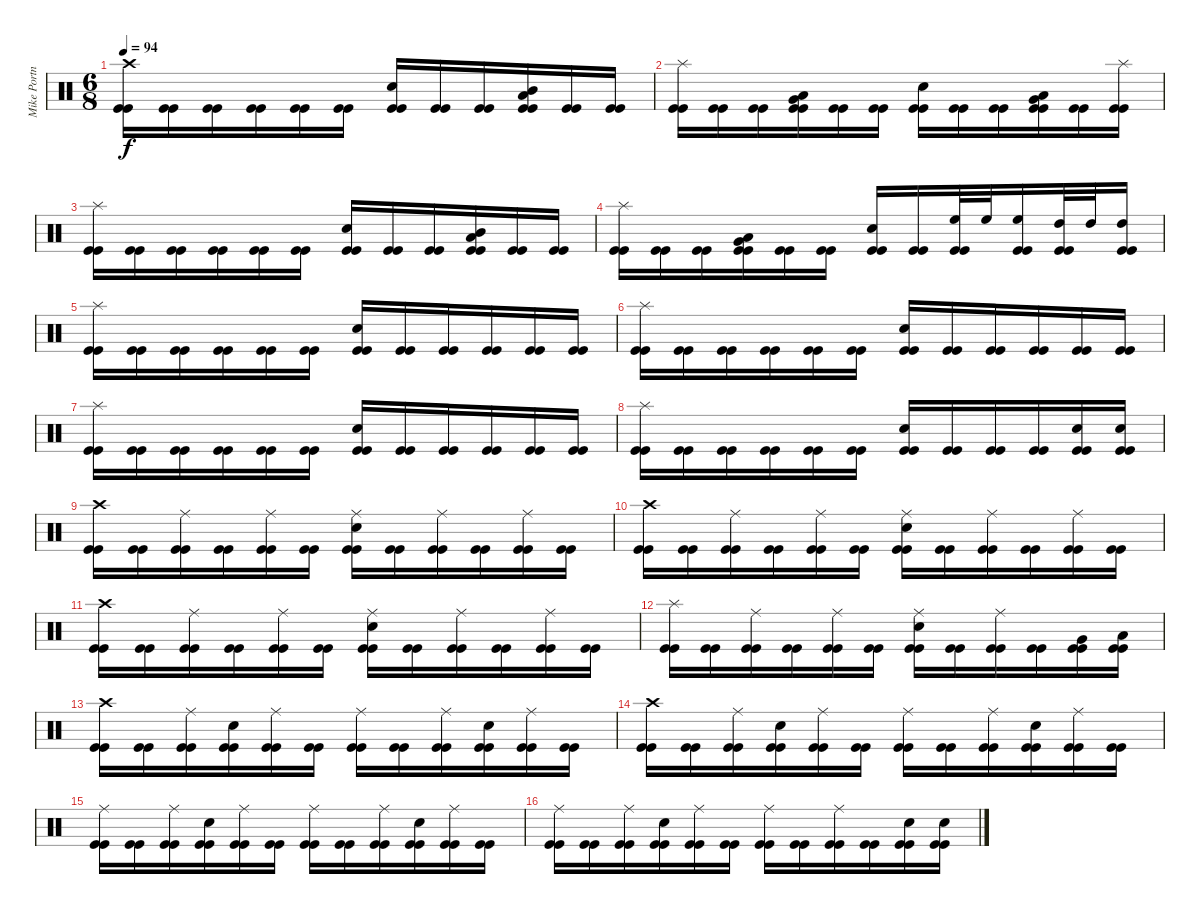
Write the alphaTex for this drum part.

\track ("Mike Portnoy - Drum" "Mike Portn") {instrument percussion}
\staff {score}
\articulation defaults
\ts (6 8)
\tempo 94
\clef neutral
\ks c
("Crash high (hit)" "Kick (hit)" "Kick (hit)").16{dy f} ("Kick (hit)" "Kick (hit)").16 ("Kick (hit)" "Kick (hit)").16 ("Kick (hit)" "Kick (hit)").16 ("Kick (hit)" "Kick (hit)").16 ("Kick (hit)" "Kick (hit)").16 ("Snare (hit) 2" "Kick (hit)" "Kick (hit)").16 ("Kick (hit)" "Kick (hit)").16 ("Kick (hit)" "Kick (hit)").16 ("Low Tom (hit)" "Mid Tom (hit)" "Kick (hit)" "Kick (hit)").16 ("Kick (hit)" "Kick (hit)").16 ("Kick (hit)" "Kick (hit)").16 |
("Splash (hit)" "Kick (hit)" "Kick (hit)").16 ("Kick (hit)" "Kick (hit)").16 ("Kick (hit)" "Kick (hit)").16 ("Low Tom (hit)" "Very Low Tom (hit)" "Kick (hit)" "Kick (hit)").16 ("Kick (hit)" "Kick (hit)").16 ("Kick (hit)" "Kick (hit)").16 ("Snare (hit) 2" "Kick (hit)" "Kick (hit)").16 ("Kick (hit)" "Kick (hit)").16 ("Kick (hit)" "Kick (hit)").16 ("Very Low Tom (hit)" "Low Floor Tom (hit)" "Kick (hit)" "Kick (hit)").16 ("Kick (hit)" "Kick (hit)").16 ("Splash (hit)" "Kick (hit)" "Kick (hit)").16 |
("Splash (hit)" "Kick (hit)" "Kick (hit)").16 ("Kick (hit)" "Kick (hit)").16 ("Kick (hit)" "Kick (hit)").16 ("Kick (hit)" "Kick (hit)").16 ("Kick (hit)" "Kick (hit)").16 ("Kick (hit)" "Kick (hit)").16 ("Snare (hit) 2" "Kick (hit)" "Kick (hit)").16 ("Kick (hit)" "Kick (hit)").16 ("Kick (hit)" "Kick (hit)").16 ("Low Tom (hit)" "Mid Tom (hit)" "Kick (hit)" "Kick (hit)").16 ("Kick (hit)" "Kick (hit)").16 ("Kick (hit)" "Kick (hit)").16 |
("Splash (hit)" "Kick (hit)" "Kick (hit)").16 ("Kick (hit)" "Kick (hit)").16 ("Kick (hit)" "Kick (hit)").16 ("Low Tom (hit)" "Very Low Tom (hit)" "Kick (hit)" "Kick (hit)").16 ("Kick (hit)" "Kick (hit)").16 ("Kick (hit)" "Kick (hit)").16 ("Snare (hit) 2" "Kick (hit)" "Kick (hit)").16 ("Kick (hit)" "Kick (hit)").16 ("High Floor Tom (hit)" "Kick (hit)" "Kick (hit)").32 "High Floor Tom (hit)".32 ("High Floor Tom (hit)" "Kick (hit)" "Kick (hit)").16 ("High Tom (hit)" "Kick (hit)" "Kick (hit)").32 "High Tom (hit)".32 ("High Tom (hit)" "Kick (hit)" "Kick (hit)").16 |
("Splash (hit)" "Kick (hit)" "Kick (hit)").16 ("Kick (hit)" "Kick (hit)").16 ("Kick (hit)" "Kick (hit)").16 ("Kick (hit)" "Kick (hit)").16 ("Kick (hit)" "Kick (hit)").16 ("Kick (hit)" "Kick (hit)").16 ("Snare (hit) 2" "Kick (hit)" "Kick (hit)").16 ("Kick (hit)" "Kick (hit)").16 ("Kick (hit)" "Kick (hit)").16 ("Kick (hit)" "Kick (hit)").16 ("Kick (hit)" "Kick (hit)").16 ("Kick (hit)" "Kick (hit)").16 |
("Splash (hit)" "Kick (hit)" "Kick (hit)").16 ("Kick (hit)" "Kick (hit)").16 ("Kick (hit)" "Kick (hit)").16 ("Kick (hit)" "Kick (hit)").16 ("Kick (hit)" "Kick (hit)").16 ("Kick (hit)" "Kick (hit)").16 ("Snare (hit) 2" "Kick (hit)" "Kick (hit)").16 ("Kick (hit)" "Kick (hit)").16 ("Kick (hit)" "Kick (hit)").16 ("Kick (hit)" "Kick (hit)").16 ("Kick (hit)" "Kick (hit)").16 ("Kick (hit)" "Kick (hit)").16 |
("Splash (hit)" "Kick (hit)" "Kick (hit)").16 ("Kick (hit)" "Kick (hit)").16 ("Kick (hit)" "Kick (hit)").16 ("Kick (hit)" "Kick (hit)").16 ("Kick (hit)" "Kick (hit)").16 ("Kick (hit)" "Kick (hit)").16 ("Snare (hit) 2" "Kick (hit)" "Kick (hit)").16 ("Kick (hit)" "Kick (hit)").16 ("Kick (hit)" "Kick (hit)").16 ("Kick (hit)" "Kick (hit)").16 ("Kick (hit)" "Kick (hit)").16 ("Kick (hit)" "Kick (hit)").16 |
("Splash (hit)" "Kick (hit)" "Kick (hit)").16 ("Kick (hit)" "Kick (hit)").16 ("Kick (hit)" "Kick (hit)").16 ("Kick (hit)" "Kick (hit)").16 ("Kick (hit)" "Kick (hit)").16 ("Kick (hit)" "Kick (hit)").16 ("Snare (hit) 2" "Kick (hit)" "Kick (hit)").16 ("Kick (hit)" "Kick (hit)").16 ("Kick (hit)" "Kick (hit)").16 ("Kick (hit)" "Kick (hit)").16 ("Snare (hit) 2" "Kick (hit)" "Kick (hit)").16 ("Snare (hit) 2" "Kick (hit)" "Kick (hit)").16 |
("Crash high (hit)" "Kick (hit)" "Kick (hit)").16 ("Kick (hit)" "Kick (hit)").16 ("Ride (middle)" "Kick (hit)" "Kick (hit)").16 ("Kick (hit)" "Kick (hit)").16 ("Ride (middle)" "Kick (hit)" "Kick (hit)").16 ("Kick (hit)" "Kick (hit)").16 ("Snare (hit) 2" "Ride (middle)" "Kick (hit)" "Kick (hit)").16 ("Kick (hit)" "Kick (hit)").16 ("Ride (middle)" "Kick (hit)" "Kick (hit)").16 ("Kick (hit)" "Kick (hit)").16 ("Ride (middle)" "Kick (hit)" "Kick (hit)").16 ("Kick (hit)" "Kick (hit)").16 |
("Crash high (hit)" "Kick (hit)" "Kick (hit)").16 ("Kick (hit)" "Kick (hit)").16 ("Ride (middle)" "Kick (hit)" "Kick (hit)").16 ("Kick (hit)" "Kick (hit)").16 ("Ride (middle)" "Kick (hit)" "Kick (hit)").16 ("Kick (hit)" "Kick (hit)").16 ("Snare (hit) 2" "Ride (middle)" "Kick (hit)" "Kick (hit)").16 ("Kick (hit)" "Kick (hit)").16 ("Ride (middle)" "Kick (hit)" "Kick (hit)").16 ("Kick (hit)" "Kick (hit)").16 ("Ride (middle)" "Kick (hit)" "Kick (hit)").16 ("Kick (hit)" "Kick (hit)").16 |
("Crash high (hit)" "Kick (hit)" "Kick (hit)").16 ("Kick (hit)" "Kick (hit)").16 ("Ride (middle)" "Kick (hit)" "Kick (hit)").16 ("Kick (hit)" "Kick (hit)").16 ("Ride (middle)" "Kick (hit)" "Kick (hit)").16 ("Kick (hit)" "Kick (hit)").16 ("Snare (hit) 2" "Ride (middle)" "Kick (hit)" "Kick (hit)").16 ("Kick (hit)" "Kick (hit)").16 ("Ride (middle)" "Kick (hit)" "Kick (hit)").16 ("Kick (hit)" "Kick (hit)").16 ("Ride (middle)" "Kick (hit)" "Kick (hit)").16 ("Kick (hit)" "Kick (hit)").16 |
("Splash (hit)" "Kick (hit)" "Kick (hit)").16 ("Kick (hit)" "Kick (hit)").16 ("Ride (middle)" "Kick (hit)" "Kick (hit)").16 ("Kick (hit)" "Kick (hit)").16 ("Ride (middle)" "Kick (hit)" "Kick (hit)").16 ("Kick (hit)" "Kick (hit)").16 ("Snare (hit) 2" "Ride (middle)" "Kick (hit)" "Kick (hit)").16 ("Kick (hit)" "Kick (hit)").16 ("Ride (middle)" "Kick (hit)" "Kick (hit)").16 ("Kick (hit)" "Kick (hit)").16 ("Very Low Tom (hit)" "Kick (hit)" "Kick (hit)").16 ("Low Floor Tom (hit)" "Kick (hit)" "Kick (hit)").16 |
("Crash high (hit)" "Kick (hit)" "Kick (hit)").16 ("Kick (hit)" "Kick (hit)").16 ("Ride (middle)" "Kick (hit)" "Kick (hit)").16 ("Snare (hit) 2" "Kick (hit)" "Kick (hit)").16 ("Ride (middle)" "Kick (hit)" "Kick (hit)").16 ("Kick (hit)" "Kick (hit)").16 ("Ride (middle)" "Kick (hit)" "Kick (hit)").16 ("Kick (hit)" "Kick (hit)").16 ("Ride (middle)" "Kick (hit)" "Kick (hit)").16 ("Snare (hit) 2" "Kick (hit)" "Kick (hit)").16 ("Ride (middle)" "Kick (hit)" "Kick (hit)").16 ("Kick (hit)" "Kick (hit)").16 |
("Crash high (hit)" "Kick (hit)" "Kick (hit)").16 ("Kick (hit)" "Kick (hit)").16 ("Ride (middle)" "Kick (hit)" "Kick (hit)").16 ("Snare (hit) 2" "Kick (hit)" "Kick (hit)").16 ("Ride (middle)" "Kick (hit)" "Kick (hit)").16 ("Kick (hit)" "Kick (hit)").16 ("Ride (middle)" "Kick (hit)" "Kick (hit)").16 ("Kick (hit)" "Kick (hit)").16 ("Ride (middle)" "Kick (hit)" "Kick (hit)").16 ("Snare (hit) 2" "Kick (hit)" "Kick (hit)").16 ("Ride (middle)" "Kick (hit)" "Kick (hit)").16 ("Kick (hit)" "Kick (hit)").16 |
("Ride (middle)" "Kick (hit)" "Kick (hit)").16 ("Kick (hit)" "Kick (hit)").16 ("Ride (middle)" "Kick (hit)" "Kick (hit)").16 ("Snare (hit) 2" "Kick (hit)" "Kick (hit)").16 ("Ride (middle)" "Kick (hit)" "Kick (hit)").16 ("Kick (hit)" "Kick (hit)").16 ("Ride (middle)" "Kick (hit)" "Kick (hit)").16 ("Kick (hit)" "Kick (hit)").16 ("Ride (middle)" "Kick (hit)" "Kick (hit)").16 ("Snare (hit) 2" "Kick (hit)" "Kick (hit)").16 ("Ride (middle)" "Kick (hit)" "Kick (hit)").16 ("Kick (hit)" "Kick (hit)").16 |
("Ride (middle)" "Kick (hit)" "Kick (hit)").16 ("Kick (hit)" "Kick (hit)").16 ("Ride (middle)" "Kick (hit)" "Kick (hit)").16 ("Snare (hit) 2" "Kick (hit)" "Kick (hit)").16 ("Ride (middle)" "Kick (hit)" "Kick (hit)").16 ("Kick (hit)" "Kick (hit)").16 ("Ride (middle)" "Kick (hit)" "Kick (hit)").16 ("Kick (hit)" "Kick (hit)").16 ("Ride (middle)" "Kick (hit)" "Kick (hit)").16 ("Kick (hit)" "Kick (hit)").16 ("Snare (hit) 2" "Kick (hit)" "Kick (hit)").16 ("Snare (hit) 2" "Kick (hit)" "Kick (hit)").16
